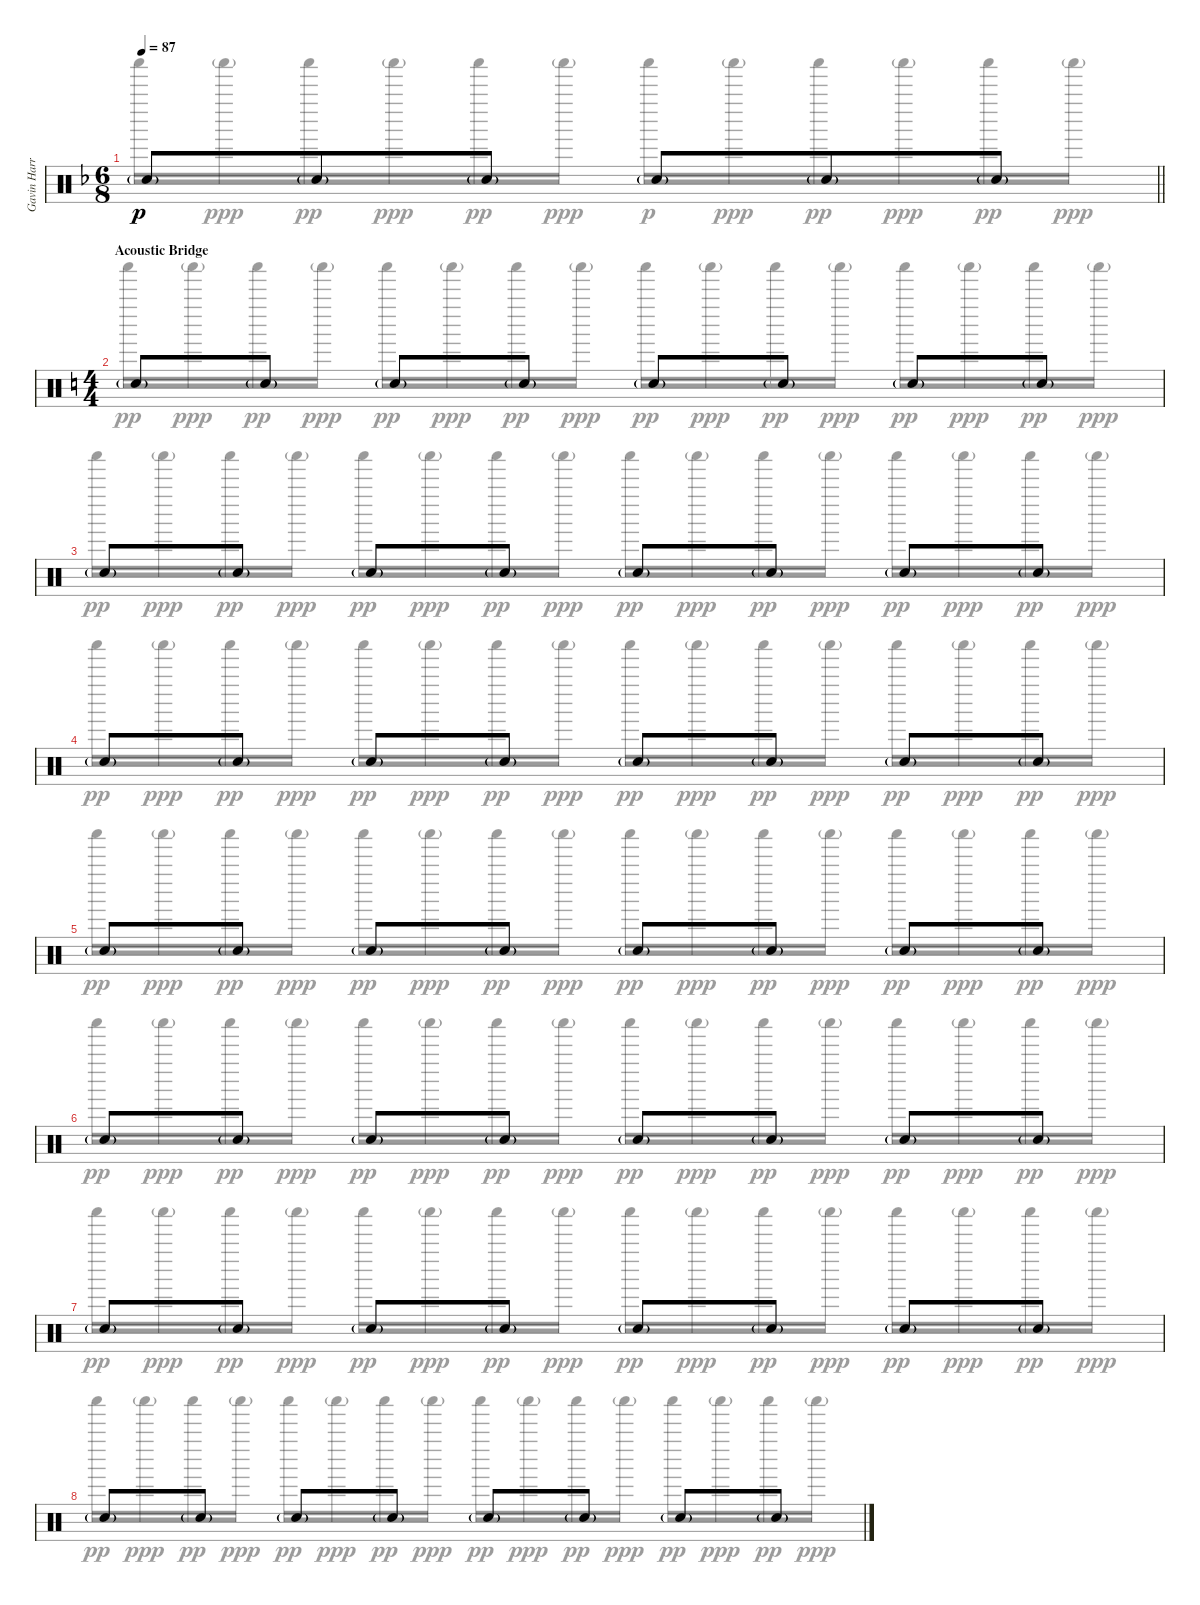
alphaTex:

\track ("Gavin Harrison Drums" "Gavin Harr") {instrument percussion}
\staff {score}
\articulation defaults
\voice
\ts (6 8)
\tempo 87
\clef neutral
\barLineRight lightlight
\ks f "Hand Clap (hit)"{g}.8{dy p} "Hand Clap (hit)"{g}.8 "Hand Clap (hit)"{g}.8 "Hand Clap (hit)"{g}.8 "Hand Clap (hit)"{g}.8 "Hand Clap (hit)"{g}.8
|
\ts (4 4)
\section ("" "Acoustic Bridge")
\ks aminor "Hand Clap (hit)"{g}.8 "Hand Clap (hit)"{g}.8 "Hand Clap (hit)"{g}.8 "Hand Clap (hit)"{g}.8 "Hand Clap (hit)"{g}.8 "Hand Clap (hit)"{g}.8 "Hand Clap (hit)"{g}.8 "Hand Clap (hit)"{g}.8
|
"Hand Clap (hit)"{g}.8 "Hand Clap (hit)"{g}.8 "Hand Clap (hit)"{g}.8 "Hand Clap (hit)"{g}.8 "Hand Clap (hit)"{g}.8 "Hand Clap (hit)"{g}.8 "Hand Clap (hit)"{g}.8 "Hand Clap (hit)"{g}.8 |
"Hand Clap (hit)"{g}.8 "Hand Clap (hit)"{g}.8 "Hand Clap (hit)"{g}.8 "Hand Clap (hit)"{g}.8 "Hand Clap (hit)"{g}.8 "Hand Clap (hit)"{g}.8 "Hand Clap (hit)"{g}.8 "Hand Clap (hit)"{g}.8 |
"Hand Clap (hit)"{g}.8 "Hand Clap (hit)"{g}.8 "Hand Clap (hit)"{g}.8 "Hand Clap (hit)"{g}.8 "Hand Clap (hit)"{g}.8 "Hand Clap (hit)"{g}.8 "Hand Clap (hit)"{g}.8 "Hand Clap (hit)"{g}.8 |
"Hand Clap (hit)"{g}.8 "Hand Clap (hit)"{g}.8 "Hand Clap (hit)"{g}.8 "Hand Clap (hit)"{g}.8 "Hand Clap (hit)"{g}.8 "Hand Clap (hit)"{g}.8 "Hand Clap (hit)"{g}.8 "Hand Clap (hit)"{g}.8 |
"Hand Clap (hit)"{g}.8 "Hand Clap (hit)"{g}.8 "Hand Clap (hit)"{g}.8 "Hand Clap (hit)"{g}.8 "Hand Clap (hit)"{g}.8 "Hand Clap (hit)"{g}.8 "Hand Clap (hit)"{g}.8 "Hand Clap (hit)"{g}.8 |
"Hand Clap (hit)"{g}.8 "Hand Clap (hit)"{g}.8 "Hand Clap (hit)"{g}.8 "Hand Clap (hit)"{g}.8 "Hand Clap (hit)"{g}.8 "Hand Clap (hit)"{g}.8 "Hand Clap (hit)"{g}.8 "Hand Clap (hit)"{g}.8
\voice
\clef neutral
\ottava regular
\simile none
\barLineRight lightlight
\ks f "Shaker (hit)".16{dy p} "Shaker (hit)"{g}.16{dy ppp} "Shaker (hit)".16{dy pp} "Shaker (hit)"{g}.16{dy ppp} "Shaker (hit)".16{dy pp} "Shaker (hit)"{g}.16{dy ppp} "Shaker (hit)".16{dy p} "Shaker (hit)"{g}.16{dy ppp} "Shaker (hit)".16{dy pp} "Shaker (hit)"{g}.16{dy ppp} "Shaker (hit)".16{dy pp} "Shaker (hit)"{g}.16{dy ppp}
|
\ks aminor "Shaker (hit)".16{dy pp} "Shaker (hit)"{g}.16{dy ppp} "Shaker (hit)".16{dy pp} "Shaker (hit)"{g}.16{dy ppp} "Shaker (hit)".16{dy pp} "Shaker (hit)"{g}.16{dy ppp} "Shaker (hit)".16{dy pp} "Shaker (hit)"{g}.16{dy ppp} "Shaker (hit)".16{dy pp} "Shaker (hit)"{g}.16{dy ppp} "Shaker (hit)".16{dy pp} "Shaker (hit)"{g}.16{dy ppp} "Shaker (hit)".16{dy pp} "Shaker (hit)"{g}.16{dy ppp} "Shaker (hit)".16{dy pp} "Shaker (hit)"{g}.16{dy ppp}
|
"Shaker (hit)".16{dy pp} "Shaker (hit)"{g}.16{dy ppp} "Shaker (hit)".16{dy pp} "Shaker (hit)"{g}.16{dy ppp} "Shaker (hit)".16{dy pp} "Shaker (hit)"{g}.16{dy ppp} "Shaker (hit)".16{dy pp} "Shaker (hit)"{g}.16{dy ppp} "Shaker (hit)".16{dy pp} "Shaker (hit)"{g}.16{dy ppp} "Shaker (hit)".16{dy pp} "Shaker (hit)"{g}.16{dy ppp} "Shaker (hit)".16{dy pp} "Shaker (hit)"{g}.16{dy ppp} "Shaker (hit)".16{dy pp} "Shaker (hit)"{g}.16{dy ppp} |
"Shaker (hit)".16{dy pp} "Shaker (hit)"{g}.16{dy ppp} "Shaker (hit)".16{dy pp} "Shaker (hit)"{g}.16{dy ppp} "Shaker (hit)".16{dy pp} "Shaker (hit)"{g}.16{dy ppp} "Shaker (hit)".16{dy pp} "Shaker (hit)"{g}.16{dy ppp} "Shaker (hit)".16{dy pp} "Shaker (hit)"{g}.16{dy ppp} "Shaker (hit)".16{dy pp} "Shaker (hit)"{g}.16{dy ppp} "Shaker (hit)".16{dy pp} "Shaker (hit)"{g}.16{dy ppp} "Shaker (hit)".16{dy pp} "Shaker (hit)"{g}.16{dy ppp} |
"Shaker (hit)".16{dy pp} "Shaker (hit)"{g}.16{dy ppp} "Shaker (hit)".16{dy pp} "Shaker (hit)"{g}.16{dy ppp} "Shaker (hit)".16{dy pp} "Shaker (hit)"{g}.16{dy ppp} "Shaker (hit)".16{dy pp} "Shaker (hit)"{g}.16{dy ppp} "Shaker (hit)".16{dy pp} "Shaker (hit)"{g}.16{dy ppp} "Shaker (hit)".16{dy pp} "Shaker (hit)"{g}.16{dy ppp} "Shaker (hit)".16{dy pp} "Shaker (hit)"{g}.16{dy ppp} "Shaker (hit)".16{dy pp} "Shaker (hit)"{g}.16{dy ppp} |
"Shaker (hit)".16{dy pp} "Shaker (hit)"{g}.16{dy ppp} "Shaker (hit)".16{dy pp} "Shaker (hit)"{g}.16{dy ppp} "Shaker (hit)".16{dy pp} "Shaker (hit)"{g}.16{dy ppp} "Shaker (hit)".16{dy pp} "Shaker (hit)"{g}.16{dy ppp} "Shaker (hit)".16{dy pp} "Shaker (hit)"{g}.16{dy ppp} "Shaker (hit)".16{dy pp} "Shaker (hit)"{g}.16{dy ppp} "Shaker (hit)".16{dy pp} "Shaker (hit)"{g}.16{dy ppp} "Shaker (hit)".16{dy pp} "Shaker (hit)"{g}.16{dy ppp} |
"Shaker (hit)".16{dy pp} "Shaker (hit)"{g}.16{dy ppp} "Shaker (hit)".16{dy pp} "Shaker (hit)"{g}.16{dy ppp} "Shaker (hit)".16{dy pp} "Shaker (hit)"{g}.16{dy ppp} "Shaker (hit)".16{dy pp} "Shaker (hit)"{g}.16{dy ppp} "Shaker (hit)".16{dy pp} "Shaker (hit)"{g}.16{dy ppp} "Shaker (hit)".16{dy pp} "Shaker (hit)"{g}.16{dy ppp} "Shaker (hit)".16{dy pp} "Shaker (hit)"{g}.16{dy ppp} "Shaker (hit)".16{dy pp} "Shaker (hit)"{g}.16{dy ppp} |
"Shaker (hit)".16{dy pp} "Shaker (hit)"{g}.16{dy ppp} "Shaker (hit)".16{dy pp} "Shaker (hit)"{g}.16{dy ppp} "Shaker (hit)".16{dy pp} "Shaker (hit)"{g}.16{dy ppp} "Shaker (hit)".16{dy pp} "Shaker (hit)"{g}.16{dy ppp} "Shaker (hit)".16{dy pp} "Shaker (hit)"{g}.16{dy ppp} "Shaker (hit)".16{dy pp} "Shaker (hit)"{g}.16{dy ppp} "Shaker (hit)".16{dy pp} "Shaker (hit)"{g}.16{dy ppp} "Shaker (hit)".16{dy pp} "Shaker (hit)"{g}.16{dy ppp}
